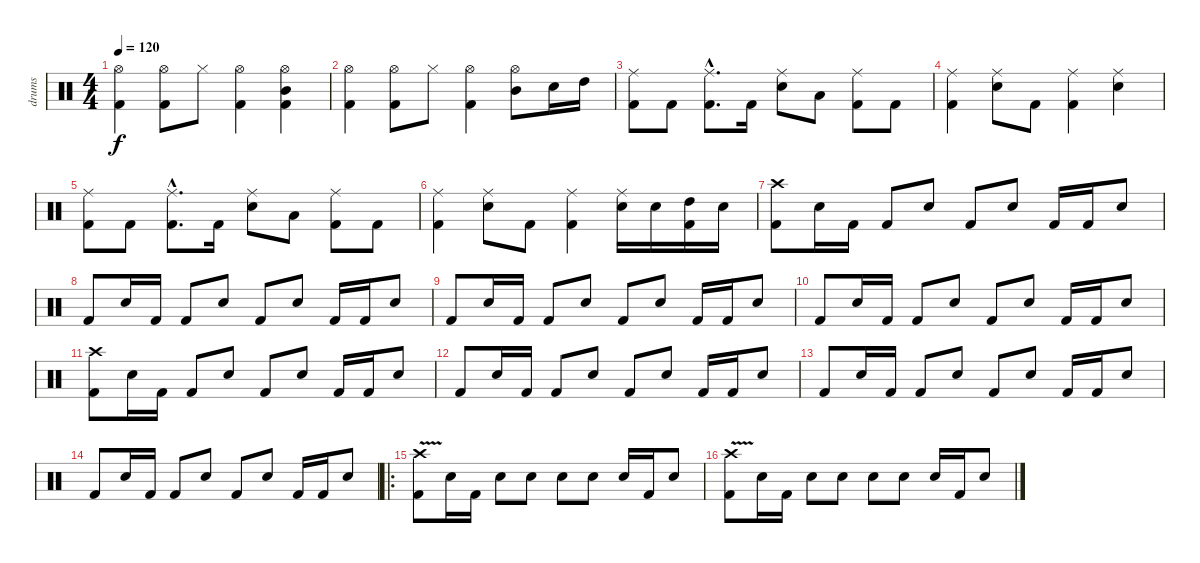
\track ("drums" "drums") {instrument percussion}
\staff {score}
\articulation defaults
\ts (4 4)
\tempo 120
\clef neutral
\ks c
("Hi-Hat (open)" "Kick (hit) 2").4{dy f} ("Hi-Hat (open)" "Kick (hit) 2").8 "Hi-Hat (closed)".8 ("Hi-Hat (open)" "Kick (hit) 2").4 ("Hi-Hat (open)" "Mid Tom (hit)" "Kick (hit) 2").4 |
("Hi-Hat (open)" "Kick (hit) 2").4 ("Hi-Hat (open)" "Kick (hit) 2").8 "Hi-Hat (closed)".8 ("Hi-Hat (open)" "Kick (hit) 2").4 ("Hi-Hat (open)" "Mid Tom (hit)").8 "Electric Snare (hit)".16 "High Tom (hit)".16 |
("Ride (middle)" "Kick (hit) 2").8 "Kick (hit) 2".8 ("Ride (middle)"{hac} "Kick (hit) 2"{hac}).8{d} "Kick (hit) 2".16 ("Ride (middle)" "Electric Snare (hit)").8 "Low Tom (hit)".8 ("Ride (middle)" "Kick (hit) 2").8 "Kick (hit) 2".8 |
("Ride (middle)" "Kick (hit) 2").4 ("Ride (middle)" "Electric Snare (hit)").8 "Kick (hit) 2".8 ("Ride (middle)" "Kick (hit) 2").4 ("Ride (middle)" "Electric Snare (hit)").4 |
("Ride (middle)" "Kick (hit) 2").8 "Kick (hit) 2".8 ("Ride (middle)"{hac} "Kick (hit) 2"{hac}).8{d} "Kick (hit) 2".16 ("Ride (middle)" "Electric Snare (hit)").8 "Low Tom (hit)".8 ("Ride (middle)" "Kick (hit) 2").8 "Kick (hit) 2".8 |
("Ride (middle)" "Kick (hit) 2").4 ("Ride (middle)" "Electric Snare (hit)").8 "Kick (hit) 2".8 ("Ride (middle)" "Kick (hit) 2").4 ("Ride (middle)" "Electric Snare (hit)").16 "Electric Snare (hit)".16 ("High Tom (hit)" "Kick (hit) 2").16 "Electric Snare (hit)".16 |
("Crash high (hit)" "Kick (hit) 2").8 "Electric Snare (hit)".16 "Kick (hit) 2".16 "Kick (hit) 2".8 "Electric Snare (hit)".8 "Kick (hit) 2".8 "Electric Snare (hit)".8 "Kick (hit) 2".16 "Kick (hit) 2".16 "Electric Snare (hit)".8 |
"Kick (hit) 2".8 "Electric Snare (hit)".16 "Kick (hit) 2".16 "Kick (hit) 2".8 "Electric Snare (hit)".8 "Kick (hit) 2".8 "Electric Snare (hit)".8 "Kick (hit) 2".16 "Kick (hit) 2".16 "Electric Snare (hit)".8 |
"Kick (hit) 2".8 "Electric Snare (hit)".16 "Kick (hit) 2".16 "Kick (hit) 2".8 "Electric Snare (hit)".8 "Kick (hit) 2".8 "Electric Snare (hit)".8 "Kick (hit) 2".16 "Kick (hit) 2".16 "Electric Snare (hit)".8 |
"Kick (hit) 2".8 "Electric Snare (hit)".16 "Kick (hit) 2".16 "Kick (hit) 2".8 "Electric Snare (hit)".8 "Kick (hit) 2".8 "Electric Snare (hit)".8 "Kick (hit) 2".16 "Kick (hit) 2".16 "Electric Snare (hit)".8 |
("Crash high (hit)" "Kick (hit) 2").8 "Electric Snare (hit)".16 "Kick (hit) 2".16 "Kick (hit) 2".8 "Electric Snare (hit)".8 "Kick (hit) 2".8 "Electric Snare (hit)".8 "Kick (hit) 2".16 "Kick (hit) 2".16 "Electric Snare (hit)".8 |
"Kick (hit) 2".8 "Electric Snare (hit)".16 "Kick (hit) 2".16 "Kick (hit) 2".8 "Electric Snare (hit)".8 "Kick (hit) 2".8 "Electric Snare (hit)".8 "Kick (hit) 2".16 "Kick (hit) 2".16 "Electric Snare (hit)".8 |
"Kick (hit) 2".8 "Electric Snare (hit)".16 "Kick (hit) 2".16 "Kick (hit) 2".8 "Electric Snare (hit)".8 "Kick (hit) 2".8 "Electric Snare (hit)".8 "Kick (hit) 2".16 "Kick (hit) 2".16 "Electric Snare (hit)".8 |
"Kick (hit) 2".8 "Electric Snare (hit)".16 "Kick (hit) 2".16 "Kick (hit) 2".8 "Electric Snare (hit)".8 "Kick (hit) 2".8 "Electric Snare (hit)".8 "Kick (hit) 2".16 "Kick (hit) 2".16 "Electric Snare (hit)".8 |
\ro
("Crash high (hit)" "Kick (hit) 2"{v}).8 "Electric Snare (hit)".16 "Kick (hit) 2".16 "Electric Snare (hit)".8 "Electric Snare (hit)".8 "Electric Snare (hit)".8 "Electric Snare (hit)".8 "Electric Snare (hit)".16 "Kick (hit) 2".16 "Electric Snare (hit)".8 |
("Crash high (hit)" "Kick (hit) 2"{v}).8 "Electric Snare (hit)".16 "Kick (hit) 2".16 "Electric Snare (hit)".8 "Electric Snare (hit)".8 "Electric Snare (hit)".8 "Electric Snare (hit)".8 "Electric Snare (hit)".16 "Kick (hit) 2".16 "Electric Snare (hit)".8
